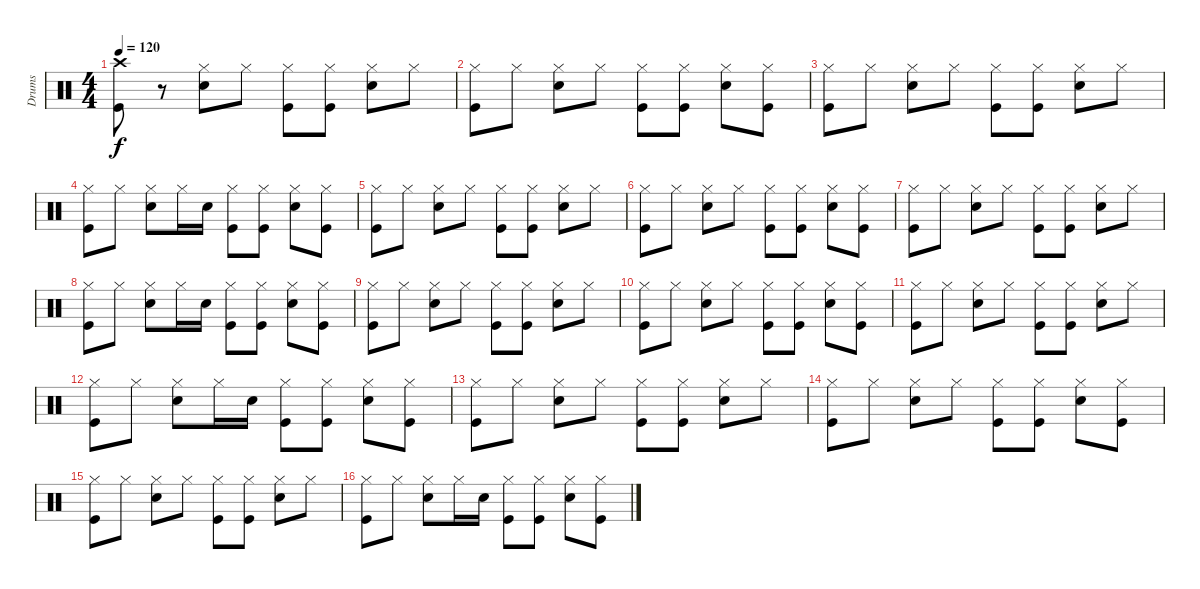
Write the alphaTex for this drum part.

\track ("Drums" "Drums") {instrument percussion}
\staff {score}
\articulation defaults
\ts (4 4)
\tempo 120
\clef neutral
\ks c
("Crash high (hit)" "Kick (hit)").8{dy f} r.8 ("Hi-Hat (closed)" "Snare (hit) 2").8 "Hi-Hat (closed)".8 ("Hi-Hat (closed)" "Kick (hit)").8 ("Hi-Hat (closed)" "Kick (hit)").8 ("Hi-Hat (closed)" "Snare (hit) 2").8 "Hi-Hat (closed)".8 |
("Hi-Hat (closed)" "Kick (hit)").8 "Hi-Hat (closed)".8 ("Hi-Hat (closed)" "Snare (hit) 2").8 "Hi-Hat (closed)".8 ("Hi-Hat (closed)" "Kick (hit)").8 ("Hi-Hat (closed)" "Kick (hit)").8 ("Hi-Hat (closed)" "Snare (hit) 2").8 ("Hi-Hat (closed)" "Kick (hit)").8 |
("Hi-Hat (closed)" "Kick (hit)").8 "Hi-Hat (closed)".8 ("Hi-Hat (closed)" "Snare (hit) 2").8 "Hi-Hat (closed)".8 ("Hi-Hat (closed)" "Kick (hit)").8 ("Hi-Hat (closed)" "Kick (hit)").8 ("Hi-Hat (closed)" "Snare (hit) 2").8 "Hi-Hat (closed)".8 |
("Hi-Hat (closed)" "Kick (hit)").8 "Hi-Hat (closed)".8 ("Hi-Hat (closed)" "Snare (hit) 2").8 "Hi-Hat (closed)".16 "Snare (hit) 2".16 ("Hi-Hat (closed)" "Kick (hit)").8 ("Hi-Hat (closed)" "Kick (hit)").8 ("Hi-Hat (closed)" "Snare (hit) 2").8 ("Hi-Hat (closed)" "Kick (hit)").8 |
("Hi-Hat (closed)" "Kick (hit)").8 "Hi-Hat (closed)".8 ("Hi-Hat (closed)" "Snare (hit) 2").8 "Hi-Hat (closed)".8 ("Hi-Hat (closed)" "Kick (hit)").8 ("Hi-Hat (closed)" "Kick (hit)").8 ("Hi-Hat (closed)" "Snare (hit) 2").8 "Hi-Hat (closed)".8 |
("Hi-Hat (closed)" "Kick (hit)").8 "Hi-Hat (closed)".8 ("Hi-Hat (closed)" "Snare (hit) 2").8 "Hi-Hat (closed)".8 ("Hi-Hat (closed)" "Kick (hit)").8 ("Hi-Hat (closed)" "Kick (hit)").8 ("Hi-Hat (closed)" "Snare (hit) 2").8 ("Hi-Hat (closed)" "Kick (hit)").8 |
("Hi-Hat (closed)" "Kick (hit)").8 "Hi-Hat (closed)".8 ("Hi-Hat (closed)" "Snare (hit) 2").8 "Hi-Hat (closed)".8 ("Hi-Hat (closed)" "Kick (hit)").8 ("Hi-Hat (closed)" "Kick (hit)").8 ("Hi-Hat (closed)" "Snare (hit) 2").8 "Hi-Hat (closed)".8 |
("Hi-Hat (closed)" "Kick (hit)").8 "Hi-Hat (closed)".8 ("Hi-Hat (closed)" "Snare (hit) 2").8 "Hi-Hat (closed)".16 "Snare (hit) 2".16 ("Hi-Hat (closed)" "Kick (hit)").8 ("Hi-Hat (closed)" "Kick (hit)").8 ("Hi-Hat (closed)" "Snare (hit) 2").8 ("Hi-Hat (closed)" "Kick (hit)").8 |
("Hi-Hat (closed)" "Kick (hit)").8 "Hi-Hat (closed)".8 ("Hi-Hat (closed)" "Snare (hit) 2").8 "Hi-Hat (closed)".8 ("Hi-Hat (closed)" "Kick (hit)").8 ("Hi-Hat (closed)" "Kick (hit)").8 ("Hi-Hat (closed)" "Snare (hit) 2").8 "Hi-Hat (closed)".8 |
("Hi-Hat (closed)" "Kick (hit)").8 "Hi-Hat (closed)".8 ("Hi-Hat (closed)" "Snare (hit) 2").8 "Hi-Hat (closed)".8 ("Hi-Hat (closed)" "Kick (hit)").8 ("Hi-Hat (closed)" "Kick (hit)").8 ("Hi-Hat (closed)" "Snare (hit) 2").8 ("Hi-Hat (closed)" "Kick (hit)").8 |
("Hi-Hat (closed)" "Kick (hit)").8 "Hi-Hat (closed)".8 ("Hi-Hat (closed)" "Snare (hit) 2").8 "Hi-Hat (closed)".8 ("Hi-Hat (closed)" "Kick (hit)").8 ("Hi-Hat (closed)" "Kick (hit)").8 ("Hi-Hat (closed)" "Snare (hit) 2").8 "Hi-Hat (closed)".8 |
("Hi-Hat (closed)" "Kick (hit)").8 "Hi-Hat (closed)".8 ("Hi-Hat (closed)" "Snare (hit) 2").8 "Hi-Hat (closed)".16 "Snare (hit) 2".16 ("Hi-Hat (closed)" "Kick (hit)").8 ("Hi-Hat (closed)" "Kick (hit)").8 ("Hi-Hat (closed)" "Snare (hit) 2").8 ("Hi-Hat (closed)" "Kick (hit)").8 |
("Hi-Hat (closed)" "Kick (hit)").8 "Hi-Hat (closed)".8 ("Hi-Hat (closed)" "Snare (hit) 2").8 "Hi-Hat (closed)".8 ("Hi-Hat (closed)" "Kick (hit)").8 ("Hi-Hat (closed)" "Kick (hit)").8 ("Hi-Hat (closed)" "Snare (hit) 2").8 "Hi-Hat (closed)".8 |
("Hi-Hat (closed)" "Kick (hit)").8 "Hi-Hat (closed)".8 ("Hi-Hat (closed)" "Snare (hit) 2").8 "Hi-Hat (closed)".8 ("Hi-Hat (closed)" "Kick (hit)").8 ("Hi-Hat (closed)" "Kick (hit)").8 ("Hi-Hat (closed)" "Snare (hit) 2").8 ("Hi-Hat (closed)" "Kick (hit)").8 |
("Hi-Hat (closed)" "Kick (hit)").8 "Hi-Hat (closed)".8 ("Hi-Hat (closed)" "Snare (hit) 2").8 "Hi-Hat (closed)".8 ("Hi-Hat (closed)" "Kick (hit)").8 ("Hi-Hat (closed)" "Kick (hit)").8 ("Hi-Hat (closed)" "Snare (hit) 2").8 "Hi-Hat (closed)".8 |
("Hi-Hat (closed)" "Kick (hit)").8 "Hi-Hat (closed)".8 ("Hi-Hat (closed)" "Snare (hit) 2").8 "Hi-Hat (closed)".16 "Snare (hit) 2".16 ("Hi-Hat (closed)" "Kick (hit)").8 ("Hi-Hat (closed)" "Kick (hit)").8 ("Hi-Hat (closed)" "Snare (hit) 2").8 ("Hi-Hat (closed)" "Kick (hit)").8
